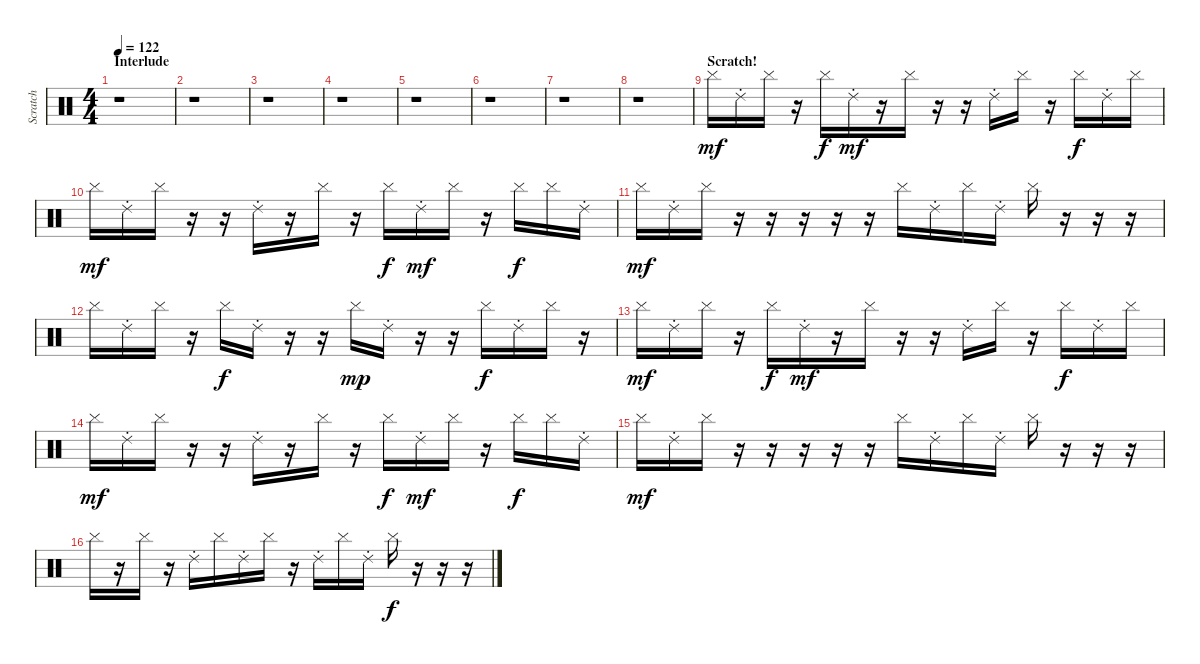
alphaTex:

\track ("Scratch" "Scratch") {instrument percussion}
\staff {score}
\articulation defaults
\ts (4 4)
\section ("" "Interlude")
\tempo 122
\clef neutral
\ks c
r.1{dy mf} |
r.1 |
r.1 |
r.1 |
r.1 |
r.1 |
r.1 |
r.1 |
\section ("" "Scratch!")
"Cymbal (hit)".16 "Ride (choke) 2".16 "Cymbal (hit)".16 r.16 "Cymbal (hit)".16{dy f} "Ride (choke) 2".16{dy mf} r.16 "Cymbal (hit)".16 r.16 r.16 "Ride (choke) 2".16 "Cymbal (hit)".16 r.16 "Cymbal (hit)".16{dy f} "Ride (choke) 2".16 "Cymbal (hit)".16 |
"Cymbal (hit)".16{dy mf} "Ride (choke) 2".16 "Cymbal (hit)".16 r.16 r.16 "Ride (choke) 2".16 r.16 "Cymbal (hit)".16 r.16 "Cymbal (hit)".16{dy f} "Ride (choke) 2".16{dy mf} "Cymbal (hit)".16 r.16 "Cymbal (hit)".16{dy f} "Cymbal (hit)".16 "Ride (choke) 2".16 |
"Cymbal (hit)".16{dy mf} "Ride (choke) 2".16 "Cymbal (hit)".16 r.16 r.16 r.16 r.16 r.16 "Cymbal (hit)".16 "Ride (choke) 2".16 "Cymbal (hit)".16 "Ride (choke) 2".16 "Cymbal (hit)".16 r.16 r.16 r.16 |
"Cymbal (hit)".16 "Ride (choke) 2".16 "Cymbal (hit)".16 r.16 "Cymbal (hit)".16{dy f} "Ride (choke) 2".16 r.16 r.16 "Cymbal (hit)".16{dy mp} "Ride (choke) 2".16 r.16 r.16 "Cymbal (hit)".16{dy f} "Ride (choke) 2".16 "Cymbal (hit)".16 r.16 |
"Cymbal (hit)".16{dy mf} "Ride (choke) 2".16 "Cymbal (hit)".16 r.16 "Cymbal (hit)".16{dy f} "Ride (choke) 2".16{dy mf} r.16 "Cymbal (hit)".16 r.16 r.16 "Ride (choke) 2".16 "Cymbal (hit)".16 r.16 "Cymbal (hit)".16{dy f} "Ride (choke) 2".16 "Cymbal (hit)".16 |
"Cymbal (hit)".16{dy mf} "Ride (choke) 2".16 "Cymbal (hit)".16 r.16 r.16 "Ride (choke) 2".16 r.16 "Cymbal (hit)".16 r.16 "Cymbal (hit)".16{dy f} "Ride (choke) 2".16{dy mf} "Cymbal (hit)".16 r.16 "Cymbal (hit)".16{dy f} "Cymbal (hit)".16 "Ride (choke) 2".16 |
"Cymbal (hit)".16{dy mf} "Ride (choke) 2".16 "Cymbal (hit)".16 r.16 r.16 r.16 r.16 r.16 "Cymbal (hit)".16 "Ride (choke) 2".16 "Cymbal (hit)".16 "Ride (choke) 2".16 "Cymbal (hit)".16 r.16 r.16 r.16 |
"Cymbal (hit)".16 r.16 "Cymbal (hit)".16 r.16 "Ride (choke) 2".16 "Cymbal (hit)".16 "Ride (choke) 2".16 "Cymbal (hit)".16 r.16 "Ride (choke) 2".16 "Cymbal (hit)".16 "Ride (choke) 2".16 "Cymbal (hit)".16{dy f} r.16 r.16 r.16
